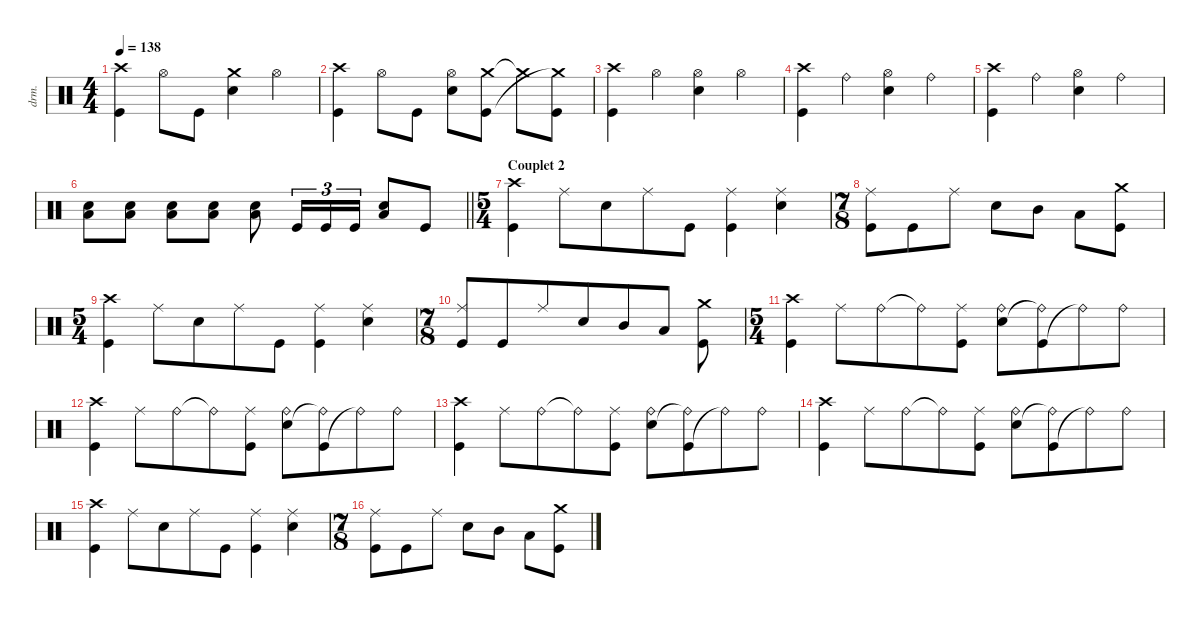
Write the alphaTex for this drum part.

\defaultSystemsLayout 4
\hideDynamics
\bracketExtendMode nobrackets
\track ("Percussions" "drm.") {instrument percussion}
\staff {score}
\articulation defaults
\ts (4 4)
\tempo 138
\clef neutral
\ks aminor
("Kick (hit)" "Crash high (hit)").4{dy f beam Down} "Hi-Hat (open)".8{beam Down} "Kick (hit)".8{beam Down} ("Crash medium (hit)" "Snare (hit) 2").4{beam Down} "Hi-Hat (open)".4{beam Down} |
("Kick (hit)" "Crash high (hit)").4{beam Down} "Hi-Hat (open)".8{beam Down} "Kick (hit)".8{beam Down} ("Hi-Hat (open)" "Snare (hit) 2").8{beam Down} ("Crash medium (hit)" "Kick (hit)").8{beam Down} "Crash medium (hit)"{t}.8{beam Down} ("Kick (hit)" "Crash medium (hit)"{t}).8{beam Down} |
("Kick (hit)" "Crash high (hit)").4{beam Down} "Hi-Hat (open)".4{beam Down} ("Hi-Hat (open)" "Snare (hit) 2").4{beam Down} "Hi-Hat (open)".4{beam Down} |
("Kick (hit)" "Crash high (hit)").4{beam Down} "Ride (bell)".4{beam Down} ("Hi-Hat (open)" "Snare (hit) 2").4{beam Down} "Ride (bell)".4{beam Down} |
("Kick (hit)" "Crash high (hit)").4{beam Down} "Ride (bell)".4{beam Down} ("Hi-Hat (open)" "Snare (hit) 2").4{beam Down} "Ride (bell)".4{beam Down} |
\barLineRight lightlight
("Snare (hit) 2" "Low Tom (hit)").8{beam Down} ("Snare (hit) 2" "Low Tom (hit)").8{beam Down} ("Snare (hit) 2" "Low Tom (hit)").8{beam Down} ("Snare (hit) 2" "Low Tom (hit)").8{beam Down} ("Snare (hit) 2" "Low Tom (hit)").8{beam Down} "Kick (hit)".16{tu (3 2) beam Up} "Kick (hit)".16{tu (3 2) beam Up} "Kick (hit)".16{tu (3 2) beam Up} ("Snare (hit) 2" "Low Tom (hit)").8{beam Up} "Kick (hit)".8{beam Up} |
\ts (5 4)
\beaming (8 6 4)
\section ("" "Couplet 2")
("Crash high (hit)" "Kick (hit)").4{beam Down} "Ride (middle)".8{beam Down} "Snare (hit) 2".8{beam Down} "Ride (middle)".8{beam Down} "Kick (hit)".8{beam Down} ("Ride (middle)" "Kick (hit)").4{beam Down} ("Ride (middle)" "Snare (hit) 2").4{beam Down} |
\ts (7 8)
\beaming (8 3 2 2)
("Ride (middle)" "Kick (hit)").8{beam Down} "Kick (hit)".8{beam Down} "Ride (middle)".8{beam Down} "Snare (hit) 2".8{beam Down} "Mid Tom (hit)".8{beam Down} "Low Tom (hit)".8{beam Down} ("Kick (hit)" "Crash medium (hit)").8{beam Down} |
\ts (5 4)
\beaming (8 6 4)
("Crash high (hit)" "Kick (hit)").4{beam Down} "Ride (middle)".8{beam Down} "Snare (hit) 2".8{beam Down} "Ride (middle)".8{beam Down} "Kick (hit)".8{beam Down} ("Ride (middle)" "Kick (hit)").4{beam Down} ("Ride (middle)" "Snare (hit) 2").4{beam Down} |
\ts (7 8)
\beaming (8 6 4)
("Ride (middle)" "Kick (hit)").8{beam Up} "Kick (hit)".8{beam Up} "Ride (middle)".8{beam Up} "Snare (hit) 2".8{beam Up} "Mid Tom (hit)".8{beam Up} "Low Tom (hit)".8{beam Up} ("Kick (hit)" "Crash medium (hit)").8{beam Down} |
\ts (5 4)
\beaming (8 6 4)
("Crash high (hit)" "Kick (hit)").4{beam Down} "Ride (middle)".8{beam Down} "Ride (bell)".8{beam Down} "Ride (bell)"{t}.8{beam Down} ("Ride (middle)" "Kick (hit)").8{beam Down} ("Ride (bell)" "Snare (hit) 2").8{beam Down} ("Kick (hit)" "Ride (bell)"{t}).8{beam Down} "Ride (bell)"{t}.8{beam Down} "Ride (bell)".8{beam Down} |
("Crash high (hit)" "Kick (hit)").4{beam Down} "Ride (middle)".8{beam Down} "Ride (bell)".8{beam Down} "Ride (bell)"{t}.8{beam Down} ("Ride (middle)" "Kick (hit)").8{beam Down} ("Ride (bell)" "Snare (hit) 2").8{beam Down} ("Kick (hit)" "Ride (bell)"{t}).8{beam Down} "Ride (bell)"{t}.8{beam Down} "Ride (bell)".8{beam Down} |
("Crash high (hit)" "Kick (hit)").4{beam Down} "Ride (middle)".8{beam Down} "Ride (bell)".8{beam Down} "Ride (bell)"{t}.8{beam Down} ("Ride (middle)" "Kick (hit)").8{beam Down} ("Ride (bell)" "Snare (hit) 2").8{beam Down} ("Kick (hit)" "Ride (bell)"{t}).8{beam Down} "Ride (bell)"{t}.8{beam Down} "Ride (bell)".8{beam Down} |
("Crash high (hit)" "Kick (hit)").4{beam Down} "Ride (middle)".8{beam Down} "Ride (bell)".8{beam Down} "Ride (bell)"{t}.8{beam Down} ("Ride (middle)" "Kick (hit)").8{beam Down} ("Ride (bell)" "Snare (hit) 2").8{beam Down} ("Kick (hit)" "Ride (bell)"{t}).8{beam Down} "Ride (bell)"{t}.8{beam Down} "Ride (bell)".8{beam Down} |
("Crash high (hit)" "Kick (hit)").4{beam Down} "Ride (middle)".8{beam Down} "Snare (hit) 2".8{beam Down} "Ride (middle)".8{beam Down} "Kick (hit)".8{beam Down} ("Ride (middle)" "Kick (hit)").4{beam Down} ("Ride (middle)" "Snare (hit) 2").4{beam Down} |
\ts (7 8)
\beaming (8 3 2 2)
("Ride (middle)" "Kick (hit)").8{beam Down} "Kick (hit)".8{beam Down} "Ride (middle)".8{beam Down} "Snare (hit) 2".8{beam Down} "Mid Tom (hit)".8{beam Down} "Low Tom (hit)".8{beam Down} ("Kick (hit)" "Crash medium (hit)").8{beam Down}
